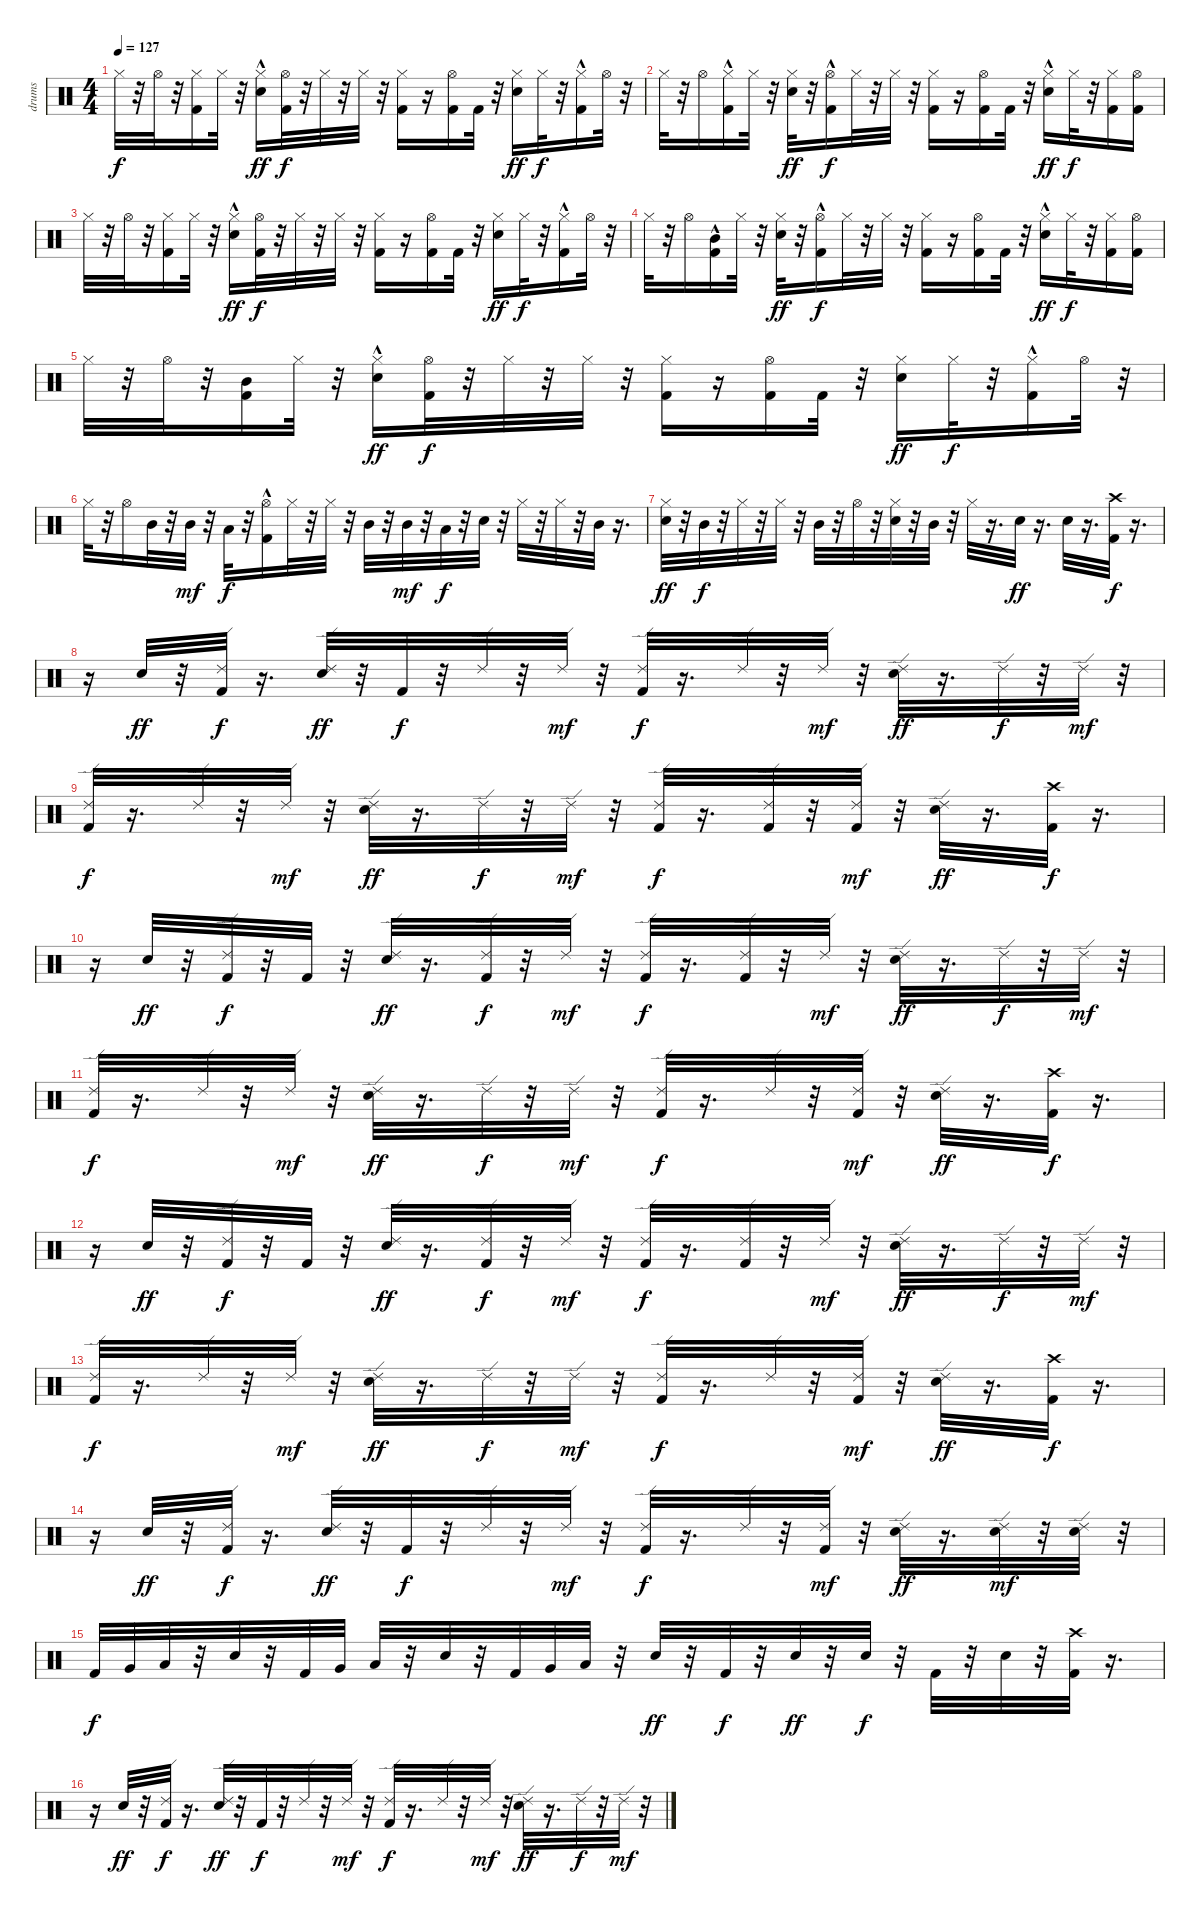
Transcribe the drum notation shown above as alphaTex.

\track ("drums" "drums") {instrument percussion}
\staff {score}
\articulation defaults
\ts (4 4)
\tempo 127
\clef neutral
\ks c "Hi-Hat (closed)".32{dy f}
r.32 "Hi-Hat (open)".32 r.32 ("Kick (hit) 2" "Hi-Hat (closed)").16 "Hi-Hat (closed)".32 r.32 ("Electric Snare (hit)"{hac} "Hi-Hat (closed)").16{dy ff} ("Hi-Hat (open)" "Kick (hit) 2").32{dy f} r.32 "Hi-Hat (closed)".32 r.32 "Hi-Hat (closed)".32 r.32 ("Kick (hit) 2" "Hi-Hat (closed)").16 r.16 ("Kick (hit) 2" "Hi-Hat (open)").16 "Kick (hit) 2".32 r.32 ("Electric Snare (hit)" "Hi-Hat (closed)").16{dy ff} "Hi-Hat (closed)".32{dy f} r.32 ("Kick (hit) 2"{hac} "Hi-Hat (closed)").16 "Hi-Hat (open)".32 r.32 |
"Hi-Hat (closed)".32 r.32 "Hi-Hat (open)".16 ("Kick (hit) 2"{hac} "Hi-Hat (closed)").16 "Hi-Hat (closed)".32 r.32 ("Electric Snare (hit)" "Hi-Hat (closed)").32{dy ff} r.32 ("Kick (hit) 2"{hac} "Hi-Hat (open)").16{dy f} "Hi-Hat (closed)".32 r.32 "Hi-Hat (closed)".32 r.32 ("Kick (hit) 2" "Hi-Hat (closed)").16 r.16 ("Kick (hit) 2" "Hi-Hat (open)").16 "Kick (hit) 2".32 r.32 ("Electric Snare (hit)"{hac} "Hi-Hat (closed)").16{dy ff} "Hi-Hat (closed)".32{dy f} r.32 ("Kick (hit) 2" "Hi-Hat (closed)").16 ("Kick (hit) 2" "Hi-Hat (open)").16 |
"Hi-Hat (closed)".32 r.32 "Hi-Hat (open)".32 r.32 ("Kick (hit) 2" "Hi-Hat (closed)").16 "Hi-Hat (closed)".32 r.32 ("Electric Snare (hit)"{hac} "Hi-Hat (closed)").16{dy ff} ("Hi-Hat (open)" "Kick (hit) 2").32{dy f} r.32 "Hi-Hat (closed)".32 r.32 "Hi-Hat (closed)".32 r.32 ("Kick (hit) 2" "Hi-Hat (closed)").16 r.16 ("Kick (hit) 2" "Hi-Hat (open)").16 "Kick (hit) 2".32 r.32 ("Electric Snare (hit)" "Hi-Hat (closed)").16{dy ff} "Hi-Hat (closed)".32{dy f} r.32 ("Kick (hit) 2"{hac} "Hi-Hat (closed)").16 "Hi-Hat (open)".32 r.32 |
"Hi-Hat (closed)".32 r.32 "Hi-Hat (open)".16 ("Mid Tom (hit)" "Kick (hit) 2"{hac}).16 "Hi-Hat (closed)".32 r.32 ("Electric Snare (hit)" "Hi-Hat (closed)").32{dy ff} r.32 ("Kick (hit) 2"{hac} "Hi-Hat (open)").16{dy f} "Hi-Hat (closed)".32 r.32 "Hi-Hat (closed)".32 r.32 ("Kick (hit) 2" "Hi-Hat (closed)").16 r.16 ("Kick (hit) 2" "Hi-Hat (open)").16 "Kick (hit) 2".32 r.32 ("Electric Snare (hit)"{hac} "Hi-Hat (closed)").16{dy ff} "Hi-Hat (closed)".32{dy f} r.32 ("Kick (hit) 2" "Hi-Hat (closed)").16 ("Kick (hit) 2" "Hi-Hat (open)").16 |
"Hi-Hat (closed)".32 r.32 "Hi-Hat (open)".32 r.32 ("Kick (hit) 2" "Mid Tom (hit)").16 "Hi-Hat (closed)".32 r.32 ("Electric Snare (hit)"{hac} "Hi-Hat (closed)").16{dy ff} ("Hi-Hat (open)" "Kick (hit) 2").32{dy f} r.32 "Hi-Hat (closed)".32 r.32 "Hi-Hat (closed)".32 r.32 ("Kick (hit) 2" "Hi-Hat (closed)").16 r.16 ("Kick (hit) 2" "Hi-Hat (open)").16 "Kick (hit) 2".32 r.32 ("Electric Snare (hit)" "Hi-Hat (closed)").16{dy ff} "Hi-Hat (closed)".32{dy f} r.32 ("Kick (hit) 2"{hac} "Hi-Hat (closed)").16 "Hi-Hat (open)".32 r.32 |
"Hi-Hat (closed)".32 r.32 "Hi-Hat (open)".16 "Mid Tom (hit)".32 r.32 "Mid Tom (hit)".32{dy mf} r.32 "Low Tom (hit)".32{dy f} r.32 ("Kick (hit) 2"{hac} "Hi-Hat (open)").16 "Hi-Hat (closed)".32 r.32 "Hi-Hat (closed)".32 r.32 "Mid Tom (hit)".32 r.32 "Mid Tom (hit)".32{dy mf} r.32 "Low Tom (hit)".32{dy f} r.32 "Electric Snare (hit)".32 r.32 "Hi-Hat (closed)".32 r.32 "Hi-Hat (closed)".32 r.32 "Mid Tom (hit)".32 r.16{d} |
("Electric Snare (hit)" "Hi-Hat (closed)").32{dy ff} r.32 "Mid Tom (hit)".32{dy f} r.32 "Hi-Hat (closed)".32 r.32 "Hi-Hat (closed)".32 r.32 "Mid Tom (hit)".32 r.32 "Hi-Hat (open)".32 r.32 ("Electric Snare (hit)" "Hi-Hat (closed)").32 r.32 "Mid Tom (hit)".32 r.32 "Hi-Hat (closed)".32 r.16{d} "Electric Snare (hit)".32{dy ff} r.16{d} "Electric Snare (hit)".32 r.16{d} ("Kick (hit) 2" "Crash high (hit)").32{dy f} r.16{d} |
r.16 "Electric Snare (hit)".32{dy ff} r.32 ("Ride (edge) 2" "Kick (hit) 2").32{dy f} r.16{d} ("Ride (edge) 2" "Electric Snare (hit)").32{dy ff} r.32 "Kick (hit) 2".32{dy f} r.32 "Ride (edge) 2".32 r.32 "Ride (edge) 2".32{dy mf} r.32 ("Ride (edge) 2" "Kick (hit) 2").32{dy f} r.16{d} "Ride (edge) 2".32 r.32 "Ride (edge) 2".32{dy mf} r.32 ("Ride (edge) 2" "Electric Snare (hit)").32{dy ff} r.16{d} "Ride (edge) 2".32{dy f} r.32 "Ride (edge) 2".32{dy mf} r.32 |
("Ride (edge) 2" "Kick (hit) 2").32{dy f} r.16{d} "Ride (edge) 2".32 r.32 "Ride (edge) 2".32{dy mf} r.32 ("Ride (edge) 2" "Electric Snare (hit)").32{dy ff} r.16{d} "Ride (edge) 2".32{dy f} r.32 "Ride (edge) 2".32{dy mf} r.32 ("Ride (edge) 2" "Kick (hit) 2").32{dy f} r.16{d} ("Kick (hit) 2" "Ride (edge) 2").32 r.32 ("Ride (edge) 2" "Kick (hit) 2").32{dy mf} r.32 ("Ride (edge) 2" "Electric Snare (hit)").32{dy ff} r.16{d} ("Crash high (hit)" "Kick (hit) 2").32{dy f} r.16{d} |
r.16 "Electric Snare (hit)".32{dy ff} r.32 ("Ride (edge) 2" "Kick (hit) 2").32{dy f} r.32 "Kick (hit) 2".32 r.32 ("Ride (edge) 2" "Electric Snare (hit)").32{dy ff} r.16{d} ("Kick (hit) 2" "Ride (edge) 2").32{dy f} r.32 "Ride (edge) 2".32{dy mf} r.32 ("Ride (edge) 2" "Kick (hit) 2").32{dy f} r.16{d} ("Ride (edge) 2" "Kick (hit) 2").32 r.32 "Ride (edge) 2".32{dy mf} r.32 ("Ride (edge) 2" "Electric Snare (hit)").32{dy ff} r.16{d} "Ride (edge) 2".32{dy f} r.32 "Ride (edge) 2".32{dy mf} r.32 |
("Ride (edge) 2" "Kick (hit) 2").32{dy f} r.16{d} "Ride (edge) 2".32 r.32 "Ride (edge) 2".32{dy mf} r.32 ("Ride (edge) 2" "Electric Snare (hit)").32{dy ff} r.16{d} "Ride (edge) 2".32{dy f} r.32 "Ride (edge) 2".32{dy mf} r.32 ("Ride (edge) 2" "Kick (hit) 2").32{dy f} r.16{d} "Ride (edge) 2".32 r.32 ("Ride (edge) 2" "Kick (hit) 2").32{dy mf} r.32 ("Ride (edge) 2" "Electric Snare (hit)").32{dy ff} r.16{d} ("Crash high (hit)" "Kick (hit) 2").32{dy f} r.16{d} |
r.16 "Electric Snare (hit)".32{dy ff} r.32 ("Ride (edge) 2" "Kick (hit) 2").32{dy f} r.32 "Kick (hit) 2".32 r.32 ("Ride (edge) 2" "Electric Snare (hit)").32{dy ff} r.16{d} ("Kick (hit) 2" "Ride (edge) 2").32{dy f} r.32 "Ride (edge) 2".32{dy mf} r.32 ("Ride (edge) 2" "Kick (hit) 2").32{dy f} r.16{d} ("Kick (hit) 2" "Ride (edge) 2").32 r.32 "Ride (edge) 2".32{dy mf} r.32 ("Ride (edge) 2" "Electric Snare (hit)").32{dy ff} r.16{d} "Ride (edge) 2".32{dy f} r.32 "Ride (edge) 2".32{dy mf} r.32 |
("Ride (edge) 2" "Kick (hit) 2").32{dy f} r.16{d} "Ride (edge) 2".32 r.32 "Ride (edge) 2".32{dy mf} r.32 ("Ride (edge) 2" "Electric Snare (hit)").32{dy ff} r.16{d} "Ride (edge) 2".32{dy f} r.32 "Ride (edge) 2".32{dy mf} r.32 ("Ride (edge) 2" "Kick (hit) 2").32{dy f} r.16{d} "Ride (edge) 2".32 r.32 ("Ride (edge) 2" "Kick (hit) 2").32{dy mf} r.32 ("Ride (edge) 2" "Electric Snare (hit)").32{dy ff} r.16{d} ("Crash high (hit)" "Kick (hit) 2").32{dy f} r.16{d} |
r.16 "Electric Snare (hit)".32{dy ff} r.32 ("Ride (edge) 2" "Kick (hit) 2").32{dy f} r.16{d} ("Ride (edge) 2" "Electric Snare (hit)").32{dy ff} r.32 "Kick (hit) 2".32{dy f} r.32 "Ride (edge) 2".32 r.32 "Ride (edge) 2".32{dy mf} r.32 ("Ride (edge) 2" "Kick (hit) 2").32{dy f} r.16{d} "Ride (edge) 2".32 r.32 ("Kick (hit) 2" "Ride (edge) 2").32{dy mf} r.32 ("Ride (edge) 2" "Electric Snare (hit)").32{dy ff} r.16{d} ("Electric Snare (hit)" "Ride (edge) 2").32{dy mf} r.32 ("Electric Snare (hit)" "Ride (edge) 2").32 r.32 |
"Kick (hit) 2".32{dy f} "Very Low Tom (hit)".32 "Low Floor Tom (hit)".32 r.32 "Electric Snare (hit)".32 r.32 "Kick (hit) 2".32 "Very Low Tom (hit)".32 "Low Floor Tom (hit)".32 r.32 "Electric Snare (hit)".32 r.32 "Kick (hit) 2".32 "Very Low Tom (hit)".32 "Low Floor Tom (hit)".32 r.32 "Electric Snare (hit)".32{dy ff} r.32 "Kick (hit) 2".32{dy f} r.32 "Electric Snare (hit)".32{dy ff} r.32 "Electric Snare (hit)".32{dy f} r.32 "Kick (hit) 2".32 r.32 "Electric Snare (hit)".32 r.32 ("Kick (hit) 2" "Crash high (hit)").32 r.16{d} |
r.16 "Electric Snare (hit)".32{dy ff} r.32 ("Ride (edge) 2" "Kick (hit) 2").32{dy f} r.16{d} ("Ride (edge) 2" "Electric Snare (hit)").32{dy ff} r.32 "Kick (hit) 2".32{dy f} r.32 "Ride (edge) 2".32 r.32 "Ride (edge) 2".32{dy mf} r.32 ("Ride (edge) 2" "Kick (hit) 2").32{dy f} r.16{d} "Ride (edge) 2".32 r.32 "Ride (edge) 2".32{dy mf} r.32 ("Ride (edge) 2" "Electric Snare (hit)").32{dy ff} r.16{d} "Ride (edge) 2".32{dy f} r.32 "Ride (edge) 2".32{dy mf} r.32
